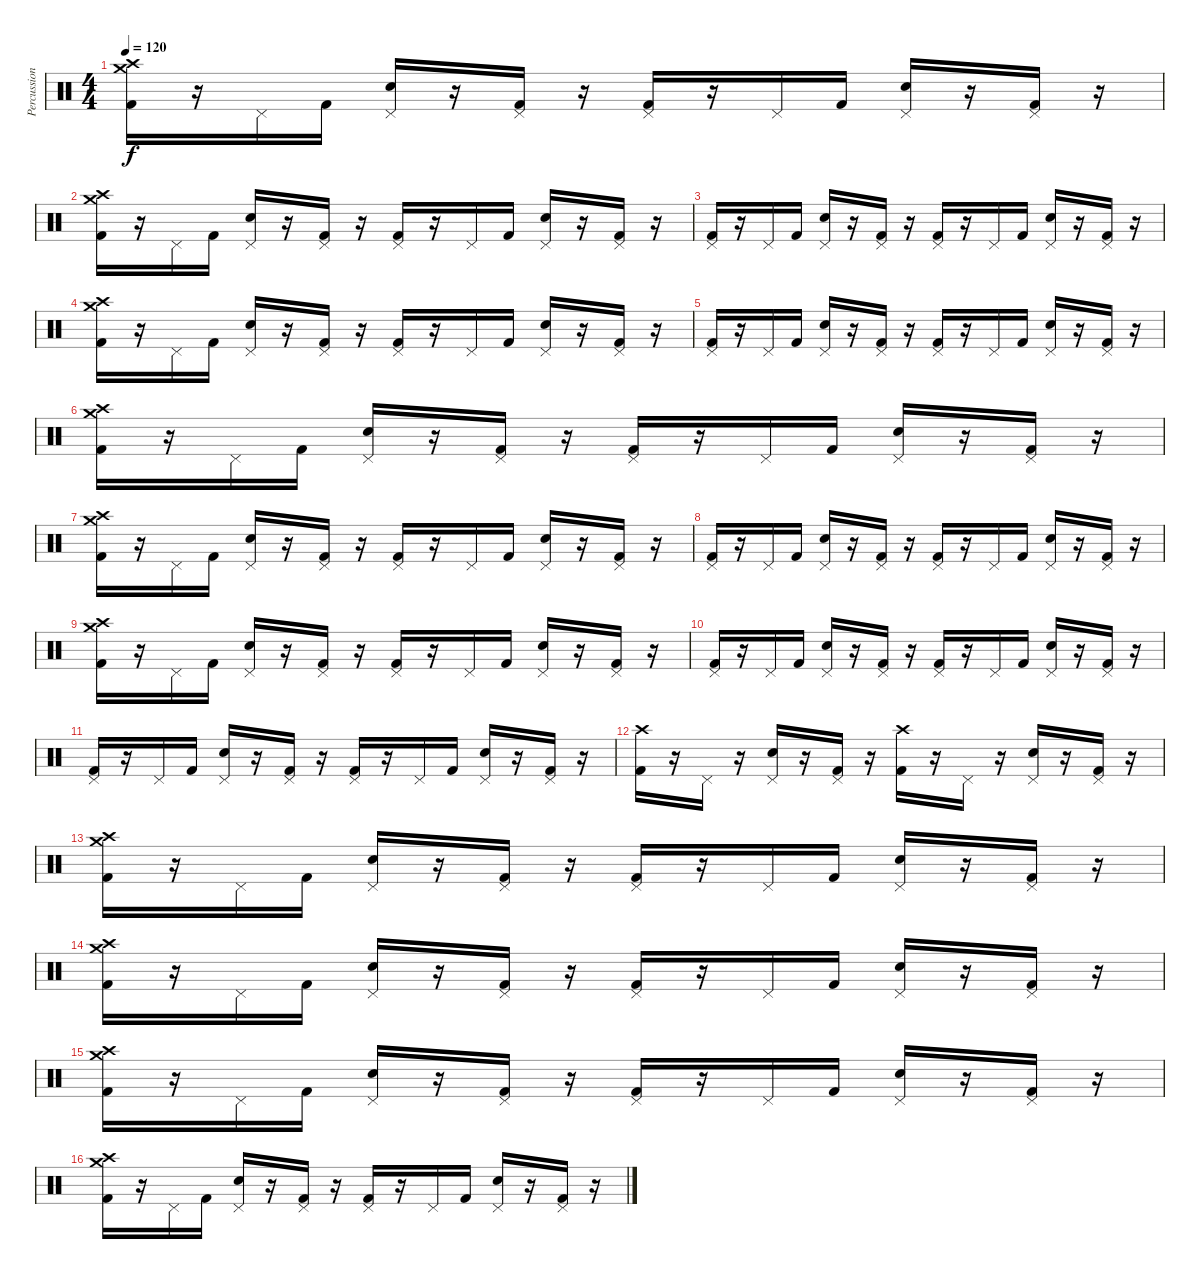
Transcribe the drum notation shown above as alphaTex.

\track ("Percussion" "Percussion") {instrument percussion}
\staff {score}
\articulation defaults
\ts (4 4)
\tempo 120
\clef neutral
\ks c
("Crash medium (hit)" "Crash high (hit)" "Kick (hit) 2").16{dy f} r.16 "Pedal Hi-Hat (hit)".16 "Kick (hit) 2".16 ("Pedal Hi-Hat (hit)" "Snare (hit) 2").16 r.16 ("Pedal Hi-Hat (hit)" "Kick (hit) 2").16 r.16 ("Pedal Hi-Hat (hit)" "Kick (hit) 2").16 r.16 "Pedal Hi-Hat (hit)".16 "Kick (hit) 2".16 ("Pedal Hi-Hat (hit)" "Snare (hit) 2").16 r.16 ("Pedal Hi-Hat (hit)" "Kick (hit) 2").16 r.16 |
("Crash medium (hit)" "Crash high (hit)" "Kick (hit) 2").16 r.16 "Pedal Hi-Hat (hit)".16 "Kick (hit) 2".16 ("Pedal Hi-Hat (hit)" "Snare (hit) 2").16 r.16 ("Pedal Hi-Hat (hit)" "Kick (hit) 2").16 r.16 ("Pedal Hi-Hat (hit)" "Kick (hit) 2").16 r.16 "Pedal Hi-Hat (hit)".16 "Kick (hit) 2".16 ("Pedal Hi-Hat (hit)" "Snare (hit) 2").16 r.16 ("Pedal Hi-Hat (hit)" "Kick (hit) 2").16 r.16 |
("Pedal Hi-Hat (hit)" "Kick (hit) 2").16 r.16 "Pedal Hi-Hat (hit)".16 "Kick (hit) 2".16 ("Pedal Hi-Hat (hit)" "Snare (hit) 2").16 r.16 ("Pedal Hi-Hat (hit)" "Kick (hit) 2").16 r.16 ("Pedal Hi-Hat (hit)" "Kick (hit) 2").16 r.16 "Pedal Hi-Hat (hit)".16 "Kick (hit) 2".16 ("Pedal Hi-Hat (hit)" "Snare (hit) 2").16 r.16 ("Pedal Hi-Hat (hit)" "Kick (hit) 2").16 r.16 |
("Crash medium (hit)" "Crash high (hit)" "Kick (hit) 2").16 r.16 "Pedal Hi-Hat (hit)".16 "Kick (hit) 2".16 ("Pedal Hi-Hat (hit)" "Snare (hit) 2").16 r.16 ("Pedal Hi-Hat (hit)" "Kick (hit) 2").16 r.16 ("Pedal Hi-Hat (hit)" "Kick (hit) 2").16 r.16 "Pedal Hi-Hat (hit)".16 "Kick (hit) 2".16 ("Pedal Hi-Hat (hit)" "Snare (hit) 2").16 r.16 ("Pedal Hi-Hat (hit)" "Kick (hit) 2").16 r.16 |
("Pedal Hi-Hat (hit)" "Kick (hit) 2").16 r.16 "Pedal Hi-Hat (hit)".16 "Kick (hit) 2".16 ("Pedal Hi-Hat (hit)" "Snare (hit) 2").16 r.16 ("Pedal Hi-Hat (hit)" "Kick (hit) 2").16 r.16 ("Pedal Hi-Hat (hit)" "Kick (hit) 2").16 r.16 "Pedal Hi-Hat (hit)".16 "Kick (hit) 2".16 ("Pedal Hi-Hat (hit)" "Snare (hit) 2").16 r.16 ("Pedal Hi-Hat (hit)" "Kick (hit) 2").16 r.16 |
("Crash medium (hit)" "Crash high (hit)" "Kick (hit) 2").16 r.16 "Pedal Hi-Hat (hit)".16 "Kick (hit) 2".16 ("Pedal Hi-Hat (hit)" "Snare (hit) 2").16 r.16 ("Pedal Hi-Hat (hit)" "Kick (hit) 2").16 r.16 ("Pedal Hi-Hat (hit)" "Kick (hit) 2").16 r.16 "Pedal Hi-Hat (hit)".16 "Kick (hit) 2".16 ("Pedal Hi-Hat (hit)" "Snare (hit) 2").16 r.16 ("Pedal Hi-Hat (hit)" "Kick (hit) 2").16 r.16 |
("Crash medium (hit)" "Crash high (hit)" "Kick (hit) 2").16 r.16 "Pedal Hi-Hat (hit)".16 "Kick (hit) 2".16 ("Pedal Hi-Hat (hit)" "Snare (hit) 2").16 r.16 ("Pedal Hi-Hat (hit)" "Kick (hit) 2").16 r.16 ("Pedal Hi-Hat (hit)" "Kick (hit) 2").16 r.16 "Pedal Hi-Hat (hit)".16 "Kick (hit) 2".16 ("Pedal Hi-Hat (hit)" "Snare (hit) 2").16 r.16 ("Pedal Hi-Hat (hit)" "Kick (hit) 2").16 r.16 |
("Pedal Hi-Hat (hit)" "Kick (hit) 2").16 r.16 "Pedal Hi-Hat (hit)".16 "Kick (hit) 2".16 ("Pedal Hi-Hat (hit)" "Snare (hit) 2").16 r.16 ("Pedal Hi-Hat (hit)" "Kick (hit) 2").16 r.16 ("Pedal Hi-Hat (hit)" "Kick (hit) 2").16 r.16 "Pedal Hi-Hat (hit)".16 "Kick (hit) 2".16 ("Pedal Hi-Hat (hit)" "Snare (hit) 2").16 r.16 ("Pedal Hi-Hat (hit)" "Kick (hit) 2").16 r.16 |
("Crash medium (hit)" "Crash high (hit)" "Kick (hit) 2").16 r.16 "Pedal Hi-Hat (hit)".16 "Kick (hit) 2".16 ("Pedal Hi-Hat (hit)" "Snare (hit) 2").16 r.16 ("Pedal Hi-Hat (hit)" "Kick (hit) 2").16 r.16 ("Pedal Hi-Hat (hit)" "Kick (hit) 2").16 r.16 "Pedal Hi-Hat (hit)".16 "Kick (hit) 2".16 ("Pedal Hi-Hat (hit)" "Snare (hit) 2").16 r.16 ("Pedal Hi-Hat (hit)" "Kick (hit) 2").16 r.16 |
("Pedal Hi-Hat (hit)" "Kick (hit) 2").16 r.16 "Pedal Hi-Hat (hit)".16 "Kick (hit) 2".16 ("Pedal Hi-Hat (hit)" "Snare (hit) 2").16 r.16 ("Pedal Hi-Hat (hit)" "Kick (hit) 2").16 r.16 ("Pedal Hi-Hat (hit)" "Kick (hit) 2").16 r.16 "Pedal Hi-Hat (hit)".16 "Kick (hit) 2".16 ("Pedal Hi-Hat (hit)" "Snare (hit) 2").16 r.16 ("Pedal Hi-Hat (hit)" "Kick (hit) 2").16 r.16 |
("Pedal Hi-Hat (hit)" "Kick (hit) 2").16 r.16 "Pedal Hi-Hat (hit)".16 "Kick (hit) 2".16 ("Pedal Hi-Hat (hit)" "Snare (hit) 2").16 r.16 ("Pedal Hi-Hat (hit)" "Kick (hit) 2").16 r.16 ("Pedal Hi-Hat (hit)" "Kick (hit) 2").16 r.16 "Pedal Hi-Hat (hit)".16 "Kick (hit) 2".16 ("Pedal Hi-Hat (hit)" "Snare (hit) 2").16 r.16 ("Pedal Hi-Hat (hit)" "Kick (hit) 2").16 r.16 |
("Crash high (hit)" "Kick (hit) 2").16 r.16 "Pedal Hi-Hat (hit)".16 r.16 ("Pedal Hi-Hat (hit)" "Snare (hit) 2").16 r.16 ("Pedal Hi-Hat (hit)" "Kick (hit) 2").16 r.16 ("Crash high (hit)" "Kick (hit) 2").16 r.16 "Pedal Hi-Hat (hit)".16 r.16 ("Pedal Hi-Hat (hit)" "Snare (hit) 2").16 r.16 ("Pedal Hi-Hat (hit)" "Kick (hit) 2").16 r.16 |
("Crash medium (hit)" "Crash high (hit)" "Kick (hit) 2").16 r.16 "Pedal Hi-Hat (hit)".16 "Kick (hit) 2".16 ("Pedal Hi-Hat (hit)" "Snare (hit) 2").16 r.16 ("Pedal Hi-Hat (hit)" "Kick (hit) 2").16 r.16 ("Pedal Hi-Hat (hit)" "Kick (hit) 2").16 r.16 "Pedal Hi-Hat (hit)".16 "Kick (hit) 2".16 ("Pedal Hi-Hat (hit)" "Snare (hit) 2").16 r.16 ("Pedal Hi-Hat (hit)" "Kick (hit) 2").16 r.16 |
("Crash medium (hit)" "Crash high (hit)" "Kick (hit) 2").16 r.16 "Pedal Hi-Hat (hit)".16 "Kick (hit) 2".16 ("Pedal Hi-Hat (hit)" "Snare (hit) 2").16 r.16 ("Pedal Hi-Hat (hit)" "Kick (hit) 2").16 r.16 ("Pedal Hi-Hat (hit)" "Kick (hit) 2").16 r.16 "Pedal Hi-Hat (hit)".16 "Kick (hit) 2".16 ("Pedal Hi-Hat (hit)" "Snare (hit) 2").16 r.16 ("Pedal Hi-Hat (hit)" "Kick (hit) 2").16 r.16 |
("Crash medium (hit)" "Crash high (hit)" "Kick (hit) 2").16 r.16 "Pedal Hi-Hat (hit)".16 "Kick (hit) 2".16 ("Pedal Hi-Hat (hit)" "Snare (hit) 2").16 r.16 ("Pedal Hi-Hat (hit)" "Kick (hit) 2").16 r.16 ("Pedal Hi-Hat (hit)" "Kick (hit) 2").16 r.16 "Pedal Hi-Hat (hit)".16 "Kick (hit) 2".16 ("Pedal Hi-Hat (hit)" "Snare (hit) 2").16 r.16 ("Pedal Hi-Hat (hit)" "Kick (hit) 2").16 r.16 |
("Crash medium (hit)" "Crash high (hit)" "Kick (hit) 2").16 r.16 "Pedal Hi-Hat (hit)".16 "Kick (hit) 2".16 ("Pedal Hi-Hat (hit)" "Snare (hit) 2").16 r.16 ("Pedal Hi-Hat (hit)" "Kick (hit) 2").16 r.16 ("Pedal Hi-Hat (hit)" "Kick (hit) 2").16 r.16 "Pedal Hi-Hat (hit)".16 "Kick (hit) 2".16 ("Pedal Hi-Hat (hit)" "Snare (hit) 2").16 r.16 ("Pedal Hi-Hat (hit)" "Kick (hit) 2").16 r.16
